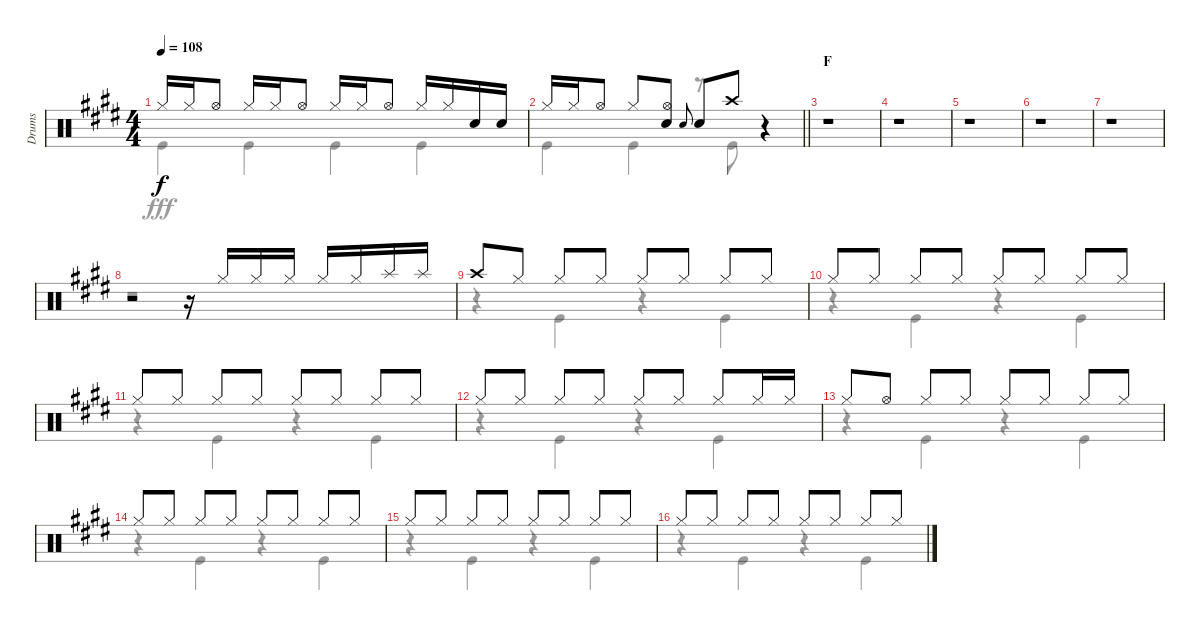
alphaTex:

\track ("Drums" "Drums") {instrument percussion}
\staff {score}
\articulation defaults
\voice
\ts (4 4)
\tempo 108
\clef neutral
\ks e "Hi-Hat (closed)".16{dy f} "Hi-Hat (closed)".16 "Hi-Hat (open)".8 "Hi-Hat (closed)".16 "Hi-Hat (closed)".16 "Hi-Hat (open)".8 "Hi-Hat (closed)".16 "Hi-Hat (closed)".16 "Hi-Hat (open)".8 "Hi-Hat (closed)".16 "Hi-Hat (closed)".16 "Snare (hit) 2".16 "Snare (hit) 2".16
|
\barLineRight lightlight "Hi-Hat (closed)".16 "Hi-Hat (closed)".16 "Hi-Hat (open)".8 "Hi-Hat (closed)".8
("Hi-Hat (open)" "Snare (hit) 2").8 "Snare (hit) 2".8{gr onbeat} "Snare (hit) 2".8 "Crash high (hit)".8 r.4 |
\section ("" "F")
r.1 |
r.1 |
r.1 |
r.1 |
r.1 |
r.2 r.16 "Hi-Hat (closed)".16 "Hi-Hat (closed)".16 "Hi-Hat (closed)".16 "Hi-Hat (closed)".16 "Hi-Hat (closed)".16 "Splash (hit)".16 "Splash (hit)".16 |
"Crash high (hit)".8 "Hi-Hat (closed)".8 "Hi-Hat (closed)".8 "Hi-Hat (closed)".8 "Hi-Hat (closed)".8 "Hi-Hat (closed)".8 "Hi-Hat (closed)".8 "Hi-Hat (closed)".8 |
"Hi-Hat (closed)".8 "Hi-Hat (closed)".8 "Hi-Hat (closed)".8 "Hi-Hat (closed)".8 "Hi-Hat (closed)".8 "Hi-Hat (closed)".8 "Hi-Hat (closed)".8 "Hi-Hat (closed)".8 |
"Hi-Hat (closed)".8 "Hi-Hat (closed)".8 "Hi-Hat (closed)".8 "Hi-Hat (closed)".8 "Hi-Hat (closed)".8 "Hi-Hat (closed)".8 "Hi-Hat (closed)".8 "Hi-Hat (closed)".8 |
"Hi-Hat (closed)".8 "Hi-Hat (closed)".8 "Hi-Hat (closed)".8 "Hi-Hat (closed)".8 "Hi-Hat (closed)".8 "Hi-Hat (closed)".8 "Hi-Hat (closed)".8 "Hi-Hat (closed)".16 "Hi-Hat (closed)".16 |
"Hi-Hat (closed)".8 "Hi-Hat (open)".8 "Hi-Hat (closed)".8 "Hi-Hat (closed)".8 "Hi-Hat (closed)".8 "Hi-Hat (closed)".8 "Hi-Hat (closed)".8 "Hi-Hat (closed)".8 |
"Hi-Hat (closed)".8 "Hi-Hat (closed)".8 "Hi-Hat (closed)".8 "Hi-Hat (closed)".8 "Hi-Hat (closed)".8 "Hi-Hat (closed)".8 "Hi-Hat (closed)".8 "Hi-Hat (closed)".8 |
"Hi-Hat (closed)".8 "Hi-Hat (closed)".8 "Hi-Hat (closed)".8 "Hi-Hat (closed)".8 "Hi-Hat (closed)".8 "Hi-Hat (closed)".8 "Hi-Hat (closed)".8 "Hi-Hat (closed)".8 |
"Hi-Hat (closed)".8 "Hi-Hat (closed)".8 "Hi-Hat (closed)".8 "Hi-Hat (closed)".8 "Hi-Hat (closed)".8 "Hi-Hat (closed)".8 "Hi-Hat (closed)".8 "Hi-Hat (closed)".8
\voice
\clef neutral
\ottava regular
\simile none
\ks e "Kick (hit)".4{dy fff} "Kick (hit)".4 "Kick (hit)".4 "Kick (hit)".4
|
\barLineRight lightlight "Kick (hit)".4 "Kick (hit)".4
r.8 "Kick (hit)".8 r.4 |
r.1 |
r.1 |
r.1 |
r.1 |
r.1 |
r.1 |
r.4 "Kick (hit)".4 r.4 "Kick (hit)".4 |
r.4 "Kick (hit)".4 r.4 "Kick (hit)".4 |
r.4 "Kick (hit)".4 r.4 "Kick (hit)".4 |
r.4 "Kick (hit)".4 r.4 "Kick (hit)".4 |
r.4 "Kick (hit)".4 r.4 "Kick (hit)".4 |
r.4 "Kick (hit)".4 r.4 "Kick (hit)".4 |
r.4 "Kick (hit)".4 r.4 "Kick (hit)".4 |
r.4 "Kick (hit)".4 r.4 "Kick (hit)".4
